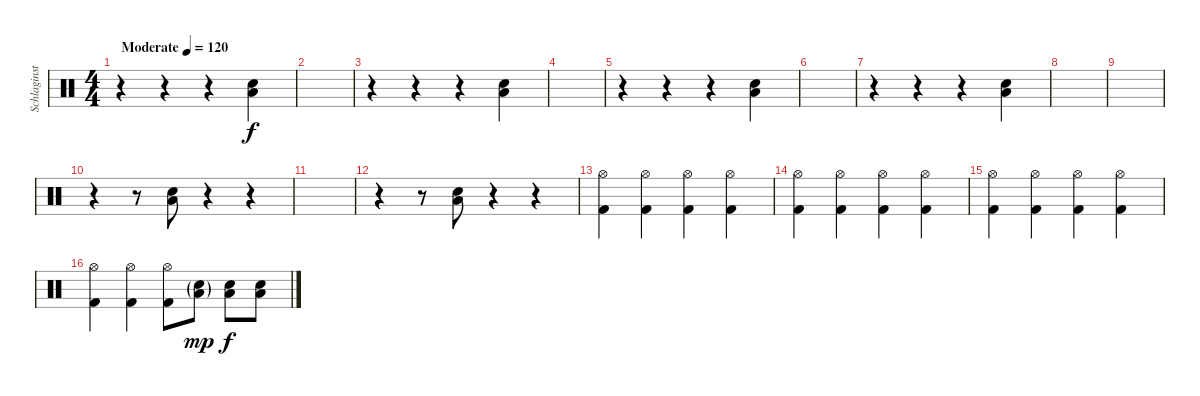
\track ("Schlaginstrumente - Auswahl" "Schlaginst") {instrument percussion}
\staff {score}
\articulation defaults
\ts (4 4)
\tempo (120 "Moderate")
\clef neutral
\ks c
r.4{dy f} r.4 r.4 ("Electric Snare (hit)" "Low Tom (hit)").4 |
|
r.4 r.4 r.4 ("Electric Snare (hit)" "Low Tom (hit)").4 |
|
r.4 r.4 r.4 ("Electric Snare (hit)" "Low Tom (hit)").4 |
|
r.4 r.4 r.4 ("Electric Snare (hit)" "Low Tom (hit)").4 |
|
|
r.4 r.8 ("Electric Snare (hit)" "Low Tom (hit)").8 r.4 r.4 |
|
r.4 r.8 ("Electric Snare (hit)" "Low Tom (hit)").8 r.4 r.4 |
("Hi-Hat (open)" "Kick (hit) 2").4 ("Hi-Hat (open)" "Kick (hit) 2").4 ("Hi-Hat (open)" "Kick (hit) 2").4 ("Hi-Hat (open)" "Kick (hit) 2").4 |
("Hi-Hat (open)" "Kick (hit) 2").4 ("Hi-Hat (open)" "Kick (hit) 2").4 ("Hi-Hat (open)" "Kick (hit) 2").4 ("Hi-Hat (open)" "Kick (hit) 2").4 |
("Hi-Hat (open)" "Kick (hit) 2").4 ("Hi-Hat (open)" "Kick (hit) 2").4 ("Hi-Hat (open)" "Kick (hit) 2").4 ("Hi-Hat (open)" "Kick (hit) 2").4 |
("Hi-Hat (open)" "Kick (hit) 2").4 ("Hi-Hat (open)" "Kick (hit) 2").4 ("Hi-Hat (open)" "Kick (hit) 2").8 ("Low Tom (hit)"{g} "Electric Snare (hit)"{g}).8{dy mp} ("Low Tom (hit)" "Electric Snare (hit)").8{dy f} ("Low Tom (hit)" "Electric Snare (hit)").8
